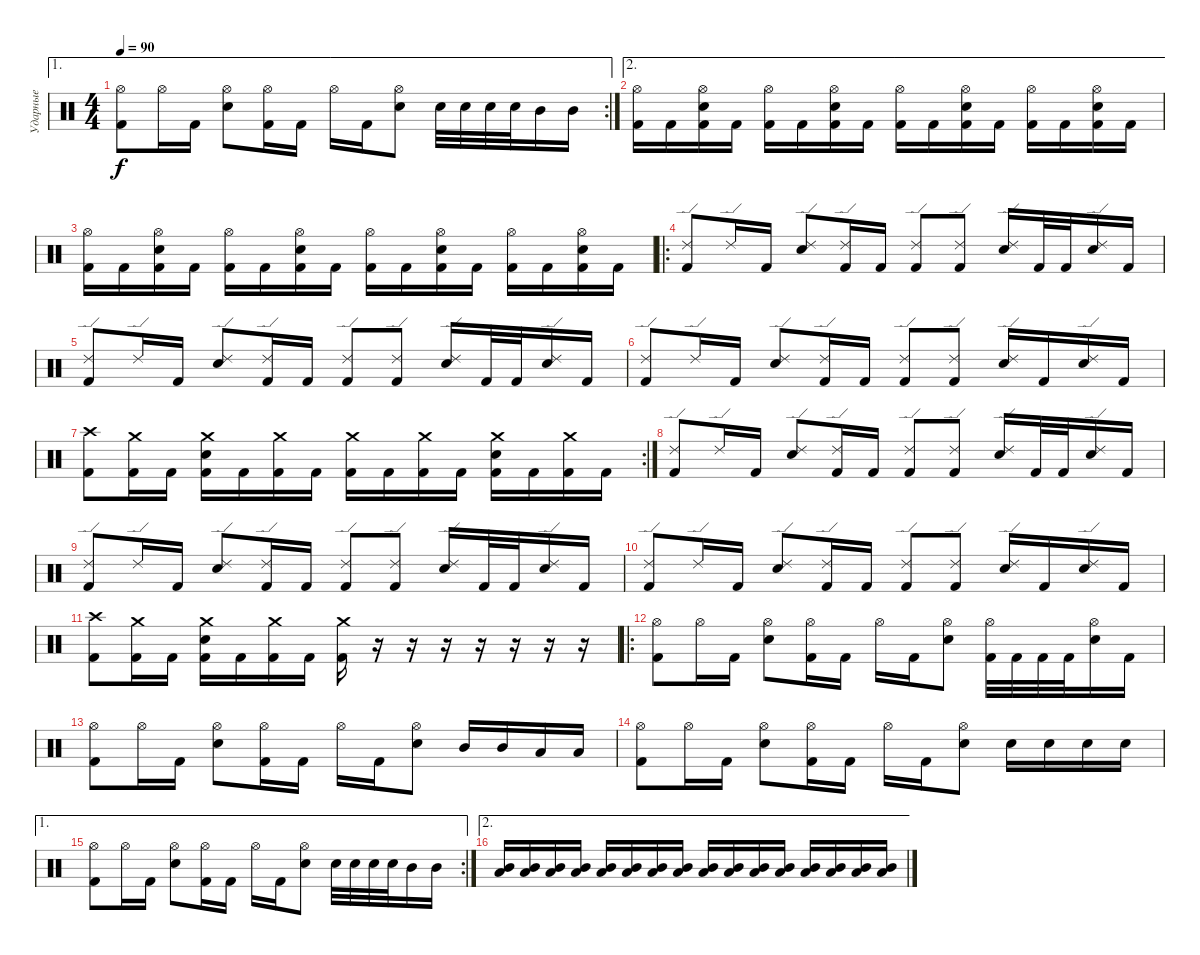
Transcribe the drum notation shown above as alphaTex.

\track ("Ударные" "Ударные") {instrument percussion}
\staff {score}
\articulation defaults
\ae 1
\rc 2
\ts (4 4)
\tempo 90
\clef neutral
\ks c
("Kick (hit) 2" "Hi-Hat (open)").8{dy f} "Hi-Hat (open)".16 "Kick (hit) 2".16 ("Electric Snare (hit)" "Hi-Hat (open)").8 ("Hi-Hat (open)" "Kick (hit) 2").16 "Kick (hit) 2".16 "Hi-Hat (open)".16 "Kick (hit) 2".16 ("Hi-Hat (open)" "Electric Snare (hit)").8 "Electric Snare (hit)".32 "Electric Snare (hit)".32 "Electric Snare (hit)".32 "Electric Snare (hit)".32 "Mid Tom (hit)".16 "Mid Tom (hit)".16 |
\ae 2
("Kick (hit) 2" "Hi-Hat (open)").16 "Kick (hit) 2".16 ("Kick (hit) 2" "Hi-Hat (open)" "Electric Snare (hit)").16 "Kick (hit) 2".16 ("Kick (hit) 2" "Hi-Hat (open)").16 "Kick (hit) 2".16 ("Kick (hit) 2" "Hi-Hat (open)" "Electric Snare (hit)").16 "Kick (hit) 2".16 ("Kick (hit) 2" "Hi-Hat (open)").16 "Kick (hit) 2".16 ("Kick (hit) 2" "Hi-Hat (open)" "Electric Snare (hit)").16 "Kick (hit) 2".16 ("Kick (hit) 2" "Hi-Hat (open)").16 "Kick (hit) 2".16 ("Kick (hit) 2" "Hi-Hat (open)" "Electric Snare (hit)").16 "Kick (hit) 2".16 |
("Kick (hit) 2" "Hi-Hat (open)").16 "Kick (hit) 2".16 ("Kick (hit) 2" "Hi-Hat (open)" "Electric Snare (hit)").16 "Kick (hit) 2".16 ("Kick (hit) 2" "Hi-Hat (open)").16 "Kick (hit) 2".16 ("Kick (hit) 2" "Hi-Hat (open)" "Electric Snare (hit)").16 "Kick (hit) 2".16 ("Kick (hit) 2" "Hi-Hat (open)").16 "Kick (hit) 2".16 ("Kick (hit) 2" "Hi-Hat (open)" "Electric Snare (hit)").16 "Kick (hit) 2".16 ("Kick (hit) 2" "Hi-Hat (open)").16 "Kick (hit) 2".16 ("Kick (hit) 2" "Hi-Hat (open)" "Electric Snare (hit)").16 "Kick (hit) 2".16 |
\ro
("Kick (hit) 2" "Ride (edge) 2").8 "Ride (edge) 2".16 "Kick (hit) 2".16 ("Electric Snare (hit)" "Ride (edge) 2").8 ("Kick (hit) 2" "Ride (edge) 2").16 "Kick (hit) 2".16 ("Kick (hit) 2" "Ride (edge) 2").8 ("Kick (hit) 2" "Ride (edge) 2").8 ("Electric Snare (hit)" "Ride (edge) 2").16 "Kick (hit) 2".32 "Kick (hit) 2".32 ("Electric Snare (hit)" "Ride (edge) 2").16 "Kick (hit) 2".16 |
("Kick (hit) 2" "Ride (edge) 2").8 "Ride (edge) 2".16 "Kick (hit) 2".16 ("Electric Snare (hit)" "Ride (edge) 2").8 ("Kick (hit) 2" "Ride (edge) 2").16 "Kick (hit) 2".16 ("Kick (hit) 2" "Ride (edge) 2").8 ("Kick (hit) 2" "Ride (edge) 2").8 ("Electric Snare (hit)" "Ride (edge) 2").16 "Kick (hit) 2".32 "Kick (hit) 2".32 ("Electric Snare (hit)" "Ride (edge) 2").16 "Kick (hit) 2".16 |
("Kick (hit) 2" "Ride (edge) 2").8 "Ride (edge) 2".16 "Kick (hit) 2".16 ("Electric Snare (hit)" "Ride (edge) 2").8 ("Kick (hit) 2" "Ride (edge) 2").16 "Kick (hit) 2".16 ("Kick (hit) 2" "Ride (edge) 2").8 ("Kick (hit) 2" "Ride (edge) 2").8 ("Electric Snare (hit)" "Ride (edge) 2").16 "Kick (hit) 2".16 ("Electric Snare (hit)" "Ride (edge) 2").16 "Kick (hit) 2".16 |
\rc 2
("Kick (hit) 2" "Crash high (hit)").8 ("Kick (hit) 2" "Crash medium (hit)").16 "Kick (hit) 2".16 ("Kick (hit) 2" "Electric Snare (hit)" "Crash medium (hit)").16 "Kick (hit) 2".16 ("Kick (hit) 2" "Crash medium (hit)").16 "Kick (hit) 2".16 ("Kick (hit) 2" "Crash medium (hit)").16 "Kick (hit) 2".16 ("Kick (hit) 2" "Crash medium (hit)").16 "Kick (hit) 2".16 ("Kick (hit) 2" "Electric Snare (hit)" "Crash medium (hit)").16 "Kick (hit) 2".16 ("Kick (hit) 2" "Crash medium (hit)").16 "Kick (hit) 2".16 |
("Kick (hit) 2" "Ride (edge) 2").8 "Ride (edge) 2".16 "Kick (hit) 2".16 ("Electric Snare (hit)" "Ride (edge) 2").8 ("Kick (hit) 2" "Ride (edge) 2").16 "Kick (hit) 2".16 ("Kick (hit) 2" "Ride (edge) 2").8 ("Kick (hit) 2" "Ride (edge) 2").8 ("Electric Snare (hit)" "Ride (edge) 2").16 "Kick (hit) 2".32 "Kick (hit) 2".32 ("Electric Snare (hit)" "Ride (edge) 2").16 "Kick (hit) 2".16 |
("Kick (hit) 2" "Ride (edge) 2").8 "Ride (edge) 2".16 "Kick (hit) 2".16 ("Electric Snare (hit)" "Ride (edge) 2").8 ("Kick (hit) 2" "Ride (edge) 2").16 "Kick (hit) 2".16 ("Kick (hit) 2" "Ride (edge) 2").8 ("Kick (hit) 2" "Ride (edge) 2").8 ("Electric Snare (hit)" "Ride (edge) 2").16 "Kick (hit) 2".32 "Kick (hit) 2".32 ("Electric Snare (hit)" "Ride (edge) 2").16 "Kick (hit) 2".16 |
("Kick (hit) 2" "Ride (edge) 2").8 "Ride (edge) 2".16 "Kick (hit) 2".16 ("Electric Snare (hit)" "Ride (edge) 2").8 ("Kick (hit) 2" "Ride (edge) 2").16 "Kick (hit) 2".16 ("Kick (hit) 2" "Ride (edge) 2").8 ("Kick (hit) 2" "Ride (edge) 2").8 ("Electric Snare (hit)" "Ride (edge) 2").16 "Kick (hit) 2".16 ("Electric Snare (hit)" "Ride (edge) 2").16 "Kick (hit) 2".16 |
("Kick (hit) 2" "Crash high (hit)").8 ("Kick (hit) 2" "Crash medium (hit)").16 "Kick (hit) 2".16 ("Kick (hit) 2" "Electric Snare (hit)" "Crash medium (hit)").16 "Kick (hit) 2".16 ("Kick (hit) 2" "Crash medium (hit)").16 "Kick (hit) 2".16 ("Kick (hit) 2" "Crash medium (hit)").16 r.16 r.16 r.16 r.16 r.16 r.16 r.16 |
\ro
("Kick (hit) 2" "Hi-Hat (open)").8 "Hi-Hat (open)".16 "Kick (hit) 2".16 ("Electric Snare (hit)" "Hi-Hat (open)").8 ("Hi-Hat (open)" "Kick (hit) 2").16 "Kick (hit) 2".16 "Hi-Hat (open)".16 "Kick (hit) 2".16 ("Hi-Hat (open)" "Electric Snare (hit)").8 ("Kick (hit) 2" "Hi-Hat (open)").32 "Kick (hit) 2".32 "Kick (hit) 2".32 "Kick (hit) 2".32 ("Electric Snare (hit)" "Hi-Hat (open)").16 "Kick (hit) 2".16 |
("Kick (hit) 2" "Hi-Hat (open)").8 "Hi-Hat (open)".16 "Kick (hit) 2".16 ("Electric Snare (hit)" "Hi-Hat (open)").8 ("Hi-Hat (open)" "Kick (hit) 2").16 "Kick (hit) 2".16 "Hi-Hat (open)".16 "Kick (hit) 2".16 ("Hi-Hat (open)" "Electric Snare (hit)").8 "Mid Tom (hit)".16 "Mid Tom (hit)".16 "Low Tom (hit)".16 "Low Tom (hit)".16 |
("Kick (hit) 2" "Hi-Hat (open)").8 "Hi-Hat (open)".16 "Kick (hit) 2".16 ("Electric Snare (hit)" "Hi-Hat (open)").8 ("Hi-Hat (open)" "Kick (hit) 2").16 "Kick (hit) 2".16 "Hi-Hat (open)".16 "Kick (hit) 2".16 ("Hi-Hat (open)" "Electric Snare (hit)").8 "Electric Snare (hit)".16 "Electric Snare (hit)".16 "Electric Snare (hit)".16 "Electric Snare (hit)".16 |
\ae 1
\rc 2
("Kick (hit) 2" "Hi-Hat (open)").8 "Hi-Hat (open)".16 "Kick (hit) 2".16 ("Electric Snare (hit)" "Hi-Hat (open)").8 ("Hi-Hat (open)" "Kick (hit) 2").16 "Kick (hit) 2".16 "Hi-Hat (open)".16 "Kick (hit) 2".16 ("Hi-Hat (open)" "Electric Snare (hit)").8 "Electric Snare (hit)".32 "Electric Snare (hit)".32 "Electric Snare (hit)".32 "Electric Snare (hit)".32 "Mid Tom (hit)".16 "Mid Tom (hit)".16 |
\ae 2
("Mid Tom (hit)" "Low Tom (hit)").16{volume 1} ("Mid Tom (hit)" "Low Tom (hit)").16{volume 2} ("Mid Tom (hit)" "Low Tom (hit)").16{volume 4} ("Mid Tom (hit)" "Low Tom (hit)").16{volume 4} ("Mid Tom (hit)" "Low Tom (hit)").16{volume 5} ("Mid Tom (hit)" "Low Tom (hit)").16{volume 6} ("Mid Tom (hit)" "Low Tom (hit)").16{volume 7} ("Mid Tom (hit)" "Low Tom (hit)").16{volume 8} ("Mid Tom (hit)" "Low Tom (hit)").16{volume 9} ("Mid Tom (hit)" "Low Tom (hit)").16{volume 10} ("Mid Tom (hit)" "Low Tom (hit)").16{volume 11} ("Mid Tom (hit)" "Low Tom (hit)").16{volume 12} ("Mid Tom (hit)" "Low Tom (hit)").16{volume 13} ("Mid Tom (hit)" "Low Tom (hit)").16{volume 14} ("Mid Tom (hit)" "Low Tom (hit)").16{volume 15} ("Mid Tom (hit)" "Low Tom (hit)").16{volume 16}
